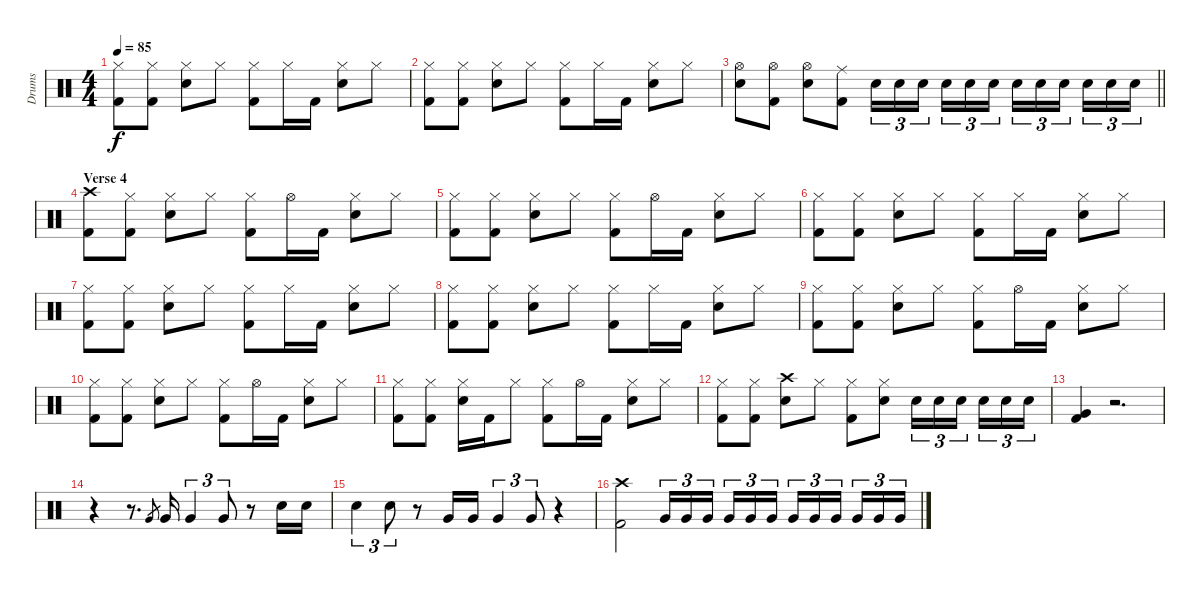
\track ("Drums" "Drums") {instrument percussion}
\staff {score}
\articulation defaults
\ts (4 4)
\tempo 85
\clef neutral
\ks c
("Hi-Hat (closed)" "Kick (hit) 2").8{dy f} ("Hi-Hat (closed)" "Kick (hit) 2").8 ("Hi-Hat (closed)" "Snare (hit) 2").8 "Hi-Hat (closed)".8 ("Hi-Hat (closed)" "Kick (hit) 2").8 "Hi-Hat (closed)".16 "Kick (hit) 2".16 ("Hi-Hat (closed)" "Snare (hit) 2").8 "Hi-Hat (closed)".8 |
("Hi-Hat (closed)" "Kick (hit) 2").8 ("Hi-Hat (closed)" "Kick (hit) 2").8 ("Hi-Hat (closed)" "Snare (hit) 2").8 "Hi-Hat (closed)".8 ("Hi-Hat (closed)" "Kick (hit) 2").8 "Hi-Hat (closed)".16 "Kick (hit) 2".16 ("Hi-Hat (closed)" "Snare (hit) 2").8 "Hi-Hat (closed)".8 |
\barLineRight lightlight
("Hi-Hat (open)" "Snare (hit) 2").8 ("Hi-Hat (open)" "Kick (hit) 2").8 ("Hi-Hat (open)" "Snare (hit) 2").8 ("Ride (middle)" "Kick (hit) 2").8 "Snare (hit) 2".16{tu (3 2)} "Snare (hit) 2".16{tu (3 2)} "Snare (hit) 2".16{tu (3 2) beam splitsecondary} "Snare (hit) 2".16{tu (3 2)} "Snare (hit) 2".16{tu (3 2)} "Snare (hit) 2".16{tu (3 2)} "Snare (hit) 2".16{tu (3 2)} "Snare (hit) 2".16{tu (3 2)} "Snare (hit) 2".16{tu (3 2) beam splitsecondary} "Snare (hit) 2".16{tu (3 2)} "Snare (hit) 2".16{tu (3 2)} "Snare (hit) 2".16{tu (3 2)} |
\section ("" "Verse 4")
("Crash high (hit)" "Kick (hit) 2").8 ("Hi-Hat (closed)" "Kick (hit) 2").8 ("Hi-Hat (closed)" "Snare (hit) 2").8 "Hi-Hat (closed)".8 ("Hi-Hat (closed)" "Kick (hit) 2").8 "Hi-Hat (open)".16 "Kick (hit) 2".16 ("Hi-Hat (closed)" "Snare (hit) 2").8 "Hi-Hat (closed)".8 |
("Hi-Hat (closed)" "Kick (hit) 2").8 ("Hi-Hat (closed)" "Kick (hit) 2").8 ("Hi-Hat (closed)" "Snare (hit) 2").8 "Hi-Hat (closed)".8 ("Hi-Hat (closed)" "Kick (hit) 2").8 "Hi-Hat (open)".16 "Kick (hit) 2".16 ("Hi-Hat (closed)" "Snare (hit) 2").8 "Hi-Hat (closed)".8 |
("Hi-Hat (closed)" "Kick (hit) 2").8 ("Hi-Hat (closed)" "Kick (hit) 2").8 ("Hi-Hat (closed)" "Snare (hit) 2").8 "Hi-Hat (closed)".8 ("Hi-Hat (closed)" "Kick (hit) 2").8 "Hi-Hat (closed)".16 "Kick (hit) 2".16 ("Hi-Hat (closed)" "Snare (hit) 2").8 "Hi-Hat (closed)".8 |
("Hi-Hat (closed)" "Kick (hit) 2").8 ("Hi-Hat (closed)" "Kick (hit) 2").8 ("Hi-Hat (closed)" "Snare (hit) 2").8 "Hi-Hat (closed)".8 ("Hi-Hat (closed)" "Kick (hit) 2").8 "Hi-Hat (closed)".16 "Kick (hit) 2".16 ("Hi-Hat (closed)" "Snare (hit) 2").8 "Hi-Hat (closed)".8 |
("Hi-Hat (closed)" "Kick (hit) 2").8 ("Hi-Hat (closed)" "Kick (hit) 2").8 ("Hi-Hat (closed)" "Snare (hit) 2").8 "Hi-Hat (closed)".8 ("Hi-Hat (closed)" "Kick (hit) 2").8 "Hi-Hat (closed)".16 "Kick (hit) 2".16 ("Hi-Hat (closed)" "Snare (hit) 2").8 "Hi-Hat (closed)".8 |
("Hi-Hat (closed)" "Kick (hit) 2").8 ("Hi-Hat (closed)" "Kick (hit) 2").8 ("Hi-Hat (closed)" "Snare (hit) 2").8 "Hi-Hat (closed)".8 ("Hi-Hat (closed)" "Kick (hit) 2").8 "Hi-Hat (open)".16 "Kick (hit) 2".16 ("Hi-Hat (closed)" "Snare (hit) 2").8 "Hi-Hat (closed)".8 |
("Hi-Hat (closed)" "Kick (hit) 2").8 ("Hi-Hat (closed)" "Kick (hit) 2").8 ("Hi-Hat (closed)" "Snare (hit) 2").8 "Hi-Hat (closed)".8 ("Hi-Hat (closed)" "Kick (hit) 2").8 "Hi-Hat (open)".16 "Kick (hit) 2".16 ("Hi-Hat (closed)" "Snare (hit) 2").8 "Hi-Hat (closed)".8 |
("Hi-Hat (closed)" "Kick (hit) 2").8 ("Hi-Hat (closed)" "Kick (hit) 2").8 ("Hi-Hat (closed)" "Snare (hit) 2").16 "Kick (hit) 2".16 "Hi-Hat (closed)".8 ("Hi-Hat (closed)" "Kick (hit) 2").8 "Hi-Hat (open)".16 "Kick (hit) 2".16 ("Hi-Hat (closed)" "Snare (hit) 2").8 "Hi-Hat (closed)".8 |
("Hi-Hat (closed)" "Kick (hit) 2").8 ("Hi-Hat (closed)" "Kick (hit) 2").8 ("Crash high (hit)" "Snare (hit) 2").8 "Hi-Hat (closed)".8 ("Hi-Hat (closed)" "Kick (hit) 2").8 ("Hi-Hat (closed)" "Snare (hit) 2").8 "Snare (hit) 2".16{tu (3 2)} "Snare (hit) 2".16{tu (3 2)} "Snare (hit) 2".16{tu (3 2) beam splitsecondary} "Snare (hit) 2".16{tu (3 2)} "Snare (hit) 2".16{tu (3 2)} "Snare (hit) 2".16{tu (3 2)} |
("Very Low Tom (hit)" "Kick (hit) 2").4 r.2{d} |
r.4 r.8{d} "Very Low Tom (hit)".8{gr} "Very Low Tom (hit)".16 "Very Low Tom (hit)".4{tu (3 2)} "Very Low Tom (hit)".8{tu (3 2)} r.8 "Snare (hit) 2".16 "Snare (hit) 2".16 |
"Snare (hit) 2".4{tu (3 2)} "Snare (hit) 2".8{tu (3 2)} r.8 "Very Low Tom (hit)".16 "Very Low Tom (hit)".16 "Very Low Tom (hit)".4{tu (3 2)} "Very Low Tom (hit)".8{tu (3 2)} r.4 |
("Crash high (hit)" "Kick (hit) 2").2 "Very Low Tom (hit)".16{tu (3 2)} "Very Low Tom (hit)".16{tu (3 2)} "Very Low Tom (hit)".16{tu (3 2) beam splitsecondary} "Very Low Tom (hit)".16{tu (3 2)} "Very Low Tom (hit)".16{tu (3 2)} "Very Low Tom (hit)".16{tu (3 2)} "Very Low Tom (hit)".16{tu (3 2)} "Very Low Tom (hit)".16{tu (3 2)} "Very Low Tom (hit)".16{tu (3 2) beam splitsecondary} "Very Low Tom (hit)".16{tu (3 2)} "Very Low Tom (hit)".16{tu (3 2)} "Very Low Tom (hit)".16{tu (3 2)}
